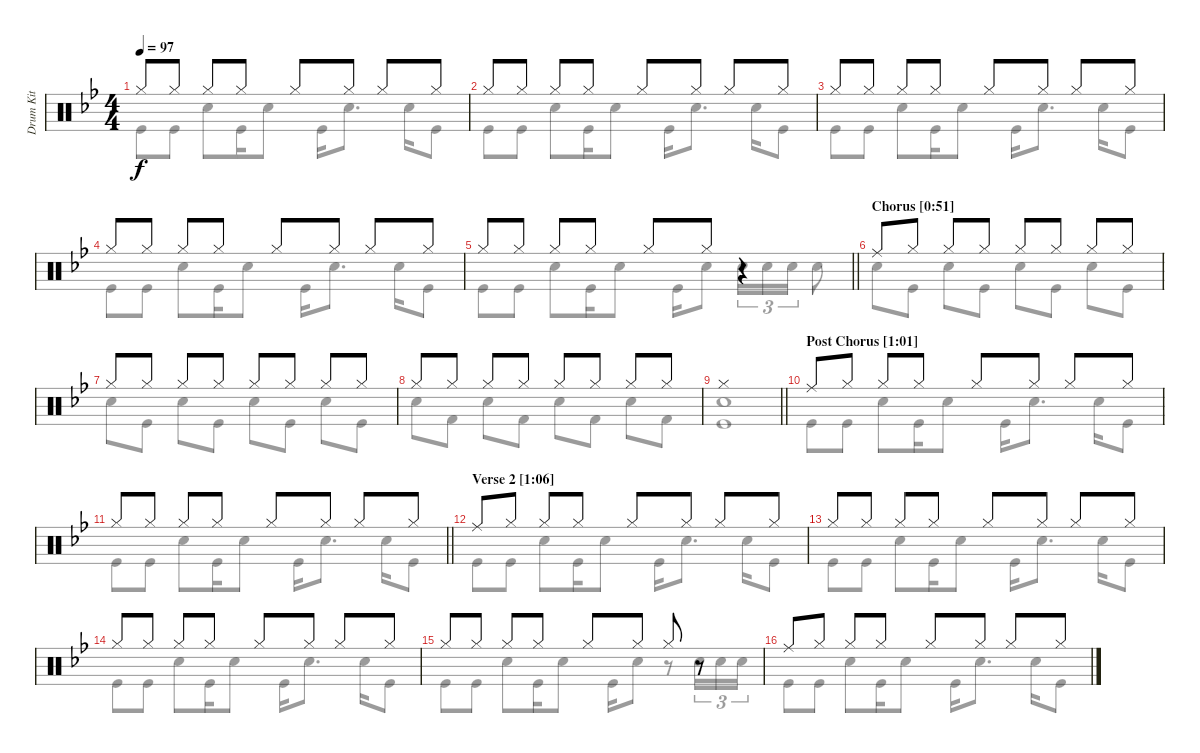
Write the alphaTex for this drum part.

\track ("Drum Kit" "Drum Kit") {instrument percussion}
\staff {score}
\articulation defaults
\voice
\ts (4 4)
\tempo 97
\clef neutral
\ks gminor "Hi-Hat (closed)".8{dy f} "Hi-Hat (closed)".8 "Hi-Hat (closed)".8 "Hi-Hat (closed)".8 "Hi-Hat (closed)".8 "Hi-Hat (closed)".8 "Hi-Hat (closed)".8 "Hi-Hat (closed)".8
|
"Hi-Hat (closed)".8 "Hi-Hat (closed)".8 "Hi-Hat (closed)".8 "Hi-Hat (closed)".8 "Hi-Hat (closed)".8 "Hi-Hat (closed)".8 "Hi-Hat (closed)".8 "Hi-Hat (closed)".8 |
"Hi-Hat (closed)".8 "Hi-Hat (closed)".8 "Hi-Hat (closed)".8 "Hi-Hat (closed)".8 "Hi-Hat (closed)".8 "Hi-Hat (closed)".8 "Hi-Hat (closed)".8 "Hi-Hat (closed)".8 |
"Hi-Hat (closed)".8 "Hi-Hat (closed)".8 "Hi-Hat (closed)".8 "Hi-Hat (closed)".8 "Hi-Hat (closed)".8 "Hi-Hat (closed)".8 "Hi-Hat (closed)".8 "Hi-Hat (closed)".8 |
\barLineRight lightlight "Hi-Hat (closed)".8 "Hi-Hat (closed)".8 "Hi-Hat (closed)".8 "Hi-Hat (closed)".8 "Hi-Hat (closed)".8 "Hi-Hat (closed)".8
r.4 |
\section ("" "Chorus [0:51]")
"Ride (middle)".8 "Hi-Hat (closed)".8 "Hi-Hat (closed)".8 "Hi-Hat (closed)".8 "Hi-Hat (closed)".8 "Hi-Hat (closed)".8 "Hi-Hat (closed)".8 "Hi-Hat (closed)".8 |
"Hi-Hat (closed)".8 "Hi-Hat (closed)".8 "Hi-Hat (closed)".8 "Hi-Hat (closed)".8 "Hi-Hat (closed)".8 "Hi-Hat (closed)".8 "Hi-Hat (closed)".8 "Hi-Hat (closed)".8 |
"Hi-Hat (closed)".8 "Hi-Hat (closed)".8 "Hi-Hat (closed)".8 "Hi-Hat (closed)".8 "Hi-Hat (closed)".8 "Hi-Hat (closed)".8 "Hi-Hat (closed)".8 "Hi-Hat (closed)".8 |
\barLineRight lightlight "Hi-Hat (closed)".1
|
\section ("" "Post Chorus [1:01]")
"Ride (middle)".8 "Hi-Hat (closed)".8 "Hi-Hat (closed)".8 "Hi-Hat (closed)".8 "Hi-Hat (closed)".8 "Hi-Hat (closed)".8 "Hi-Hat (closed)".8 "Hi-Hat (closed)".8 |
\barLineRight lightlight "Hi-Hat (closed)".8 "Hi-Hat (closed)".8 "Hi-Hat (closed)".8 "Hi-Hat (closed)".8 "Hi-Hat (closed)".8 "Hi-Hat (closed)".8 "Hi-Hat (closed)".8 "Hi-Hat (closed)".8
|
\section ("" "Verse 2 [1:06]")
"Ride (middle)".8 "Hi-Hat (closed)".8 "Hi-Hat (closed)".8 "Hi-Hat (closed)".8 "Hi-Hat (closed)".8 "Hi-Hat (closed)".8 "Hi-Hat (closed)".8 "Hi-Hat (closed)".8 |
"Hi-Hat (closed)".8 "Hi-Hat (closed)".8 "Hi-Hat (closed)".8 "Hi-Hat (closed)".8 "Hi-Hat (closed)".8 "Hi-Hat (closed)".8 "Hi-Hat (closed)".8 "Hi-Hat (closed)".8 |
"Hi-Hat (closed)".8 "Hi-Hat (closed)".8 "Hi-Hat (closed)".8 "Hi-Hat (closed)".8 "Hi-Hat (closed)".8 "Hi-Hat (closed)".8 "Hi-Hat (closed)".8 "Hi-Hat (closed)".8 |
"Hi-Hat (closed)".8 "Hi-Hat (closed)".8 "Hi-Hat (closed)".8 "Hi-Hat (closed)".8 "Hi-Hat (closed)".8 "Hi-Hat (closed)".8 "Hi-Hat (closed)".8 r.8 |
"Ride (middle)".8 "Hi-Hat (closed)".8 "Hi-Hat (closed)".8 "Hi-Hat (closed)".8 "Hi-Hat (closed)".8 "Hi-Hat (closed)".8 "Hi-Hat (closed)".8 "Hi-Hat (closed)".8
\voice
\clef neutral
\ottava regular
\simile none
\ks gminor "Kick (hit)".8{dy f} "Kick (hit)".8 "Snare (hit) 2".8 "Kick (hit)".16 "Snare (hit) 2".8 "Kick (hit)".16 "Snare (hit) 2".8{d} "Snare (hit) 2".16 "Kick (hit)".8
|
"Kick (hit)".8 "Kick (hit)".8 "Snare (hit) 2".8 "Kick (hit)".16 "Snare (hit) 2".8 "Kick (hit)".16 "Snare (hit) 2".8{d} "Snare (hit) 2".16 "Kick (hit)".8 |
"Kick (hit)".8 "Kick (hit)".8 "Snare (hit) 2".8 "Kick (hit)".16 "Snare (hit) 2".8 "Kick (hit)".16 "Snare (hit) 2".8{d} "Snare (hit) 2".16 "Kick (hit)".8 |
"Kick (hit)".8 "Kick (hit)".8 "Snare (hit) 2".8 "Kick (hit)".16 "Snare (hit) 2".8 "Kick (hit)".16 "Snare (hit) 2".8{d} "Snare (hit) 2".16 "Kick (hit)".8 |
\barLineRight lightlight "Kick (hit)".8 "Kick (hit)".8 "Snare (hit) 2".8 "Kick (hit)".16 "Snare (hit) 2".8 "Kick (hit)".16 "Snare (hit) 2".8 "Snare (hit) 2".16{tu (3 2)} "Snare (hit) 2".16{tu (3 2)} "Snare (hit) 2".16{tu (3 2)} "Snare (hit) 2".8
|
"Snare (hit) 2".8 "Kick (hit)".8 "Snare (hit) 2".8 "Kick (hit)".8 "Snare (hit) 2".8 "Kick (hit)".8 "Snare (hit) 2".8 "Kick (hit)".8 |
"Snare (hit) 2".8 "Kick (hit)".8 "Snare (hit) 2".8 "Kick (hit)".8 "Snare (hit) 2".8 "Kick (hit)".8 "Snare (hit) 2".8 "Kick (hit)".8 |
"Snare (hit) 2".8 "Kick (hit) 2".8 "Snare (hit) 2".8 "Kick (hit) 2".8 "Snare (hit) 2".8 "Kick (hit) 2".8 "Snare (hit) 2".8 "Kick (hit) 2".8 |
\barLineRight lightlight
("Kick (hit)" "Snare (hit) 2").1 |
"Kick (hit)".8 "Kick (hit)".8 "Snare (hit) 2".8 "Kick (hit)".16 "Snare (hit) 2".8 "Kick (hit)".16 "Snare (hit) 2".8{d} "Snare (hit) 2".16 "Kick (hit)".8 |
\barLineRight lightlight "Kick (hit)".8 "Kick (hit)".8 "Snare (hit) 2".8 "Kick (hit)".16 "Snare (hit) 2".8 "Kick (hit)".16 "Snare (hit) 2".8{d} "Snare (hit) 2".16 "Kick (hit)".8
|
"Kick (hit)".8 "Kick (hit)".8 "Snare (hit) 2".8 "Kick (hit)".16 "Snare (hit) 2".8 "Kick (hit)".16 "Snare (hit) 2".8{d} "Snare (hit) 2".16 "Kick (hit)".8 |
"Kick (hit)".8 "Kick (hit)".8 "Snare (hit) 2".8 "Kick (hit)".16 "Snare (hit) 2".8 "Kick (hit)".16 "Snare (hit) 2".8{d} "Snare (hit) 2".16 "Kick (hit)".8 |
"Kick (hit)".8 "Kick (hit)".8 "Snare (hit) 2".8 "Kick (hit)".16 "Snare (hit) 2".8 "Kick (hit)".16 "Snare (hit) 2".8{d} "Snare (hit) 2".16 "Kick (hit)".8 |
"Kick (hit)".8 "Kick (hit)".8 "Snare (hit) 2".8 "Kick (hit)".16 "Snare (hit) 2".8 "Kick (hit)".16 "Snare (hit) 2".8 r.8 "Snare (hit) 2".16{tu (3 2)} "Snare (hit) 2".16{tu (3 2)} "Snare (hit) 2".16{tu (3 2)} |
"Kick (hit)".8 "Kick (hit)".8 "Snare (hit) 2".8 "Kick (hit)".16 "Snare (hit) 2".8 "Kick (hit)".16 "Snare (hit) 2".8{d} "Snare (hit) 2".16 "Kick (hit)".8
